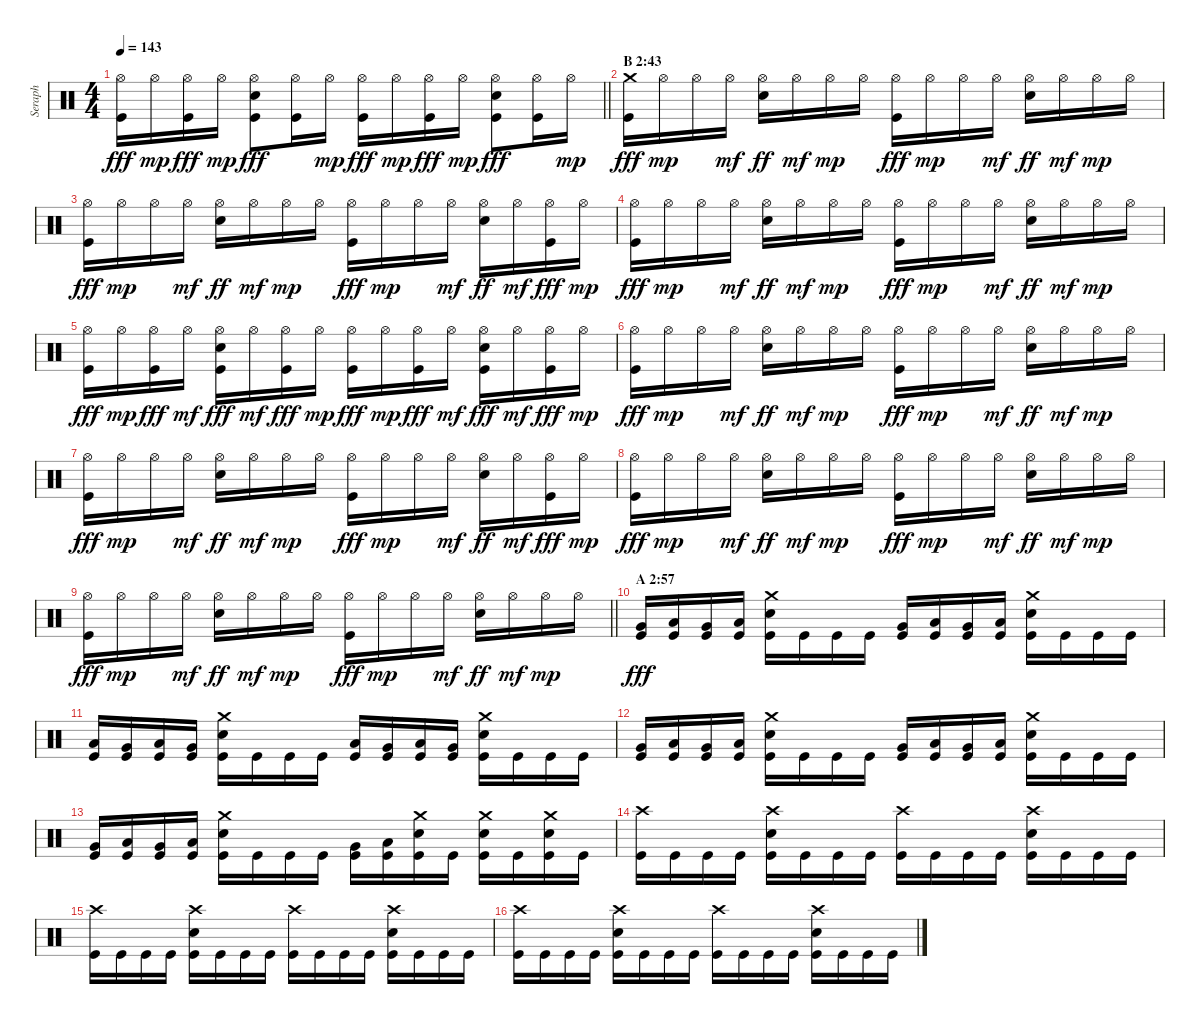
\track ("Seraph" "Seraph") {instrument percussion}
\staff {score}
\articulation defaults
\ts (4 4)
\tempo 143
\clef neutral
\barLineRight lightlight
\ks c
("Hi-Hat (open)" "Kick (hit)").16{dy fff} "Hi-Hat (open)".16{dy mp} ("Hi-Hat (open)" "Kick (hit)").16{dy fff} "Hi-Hat (open)".16{dy mp} ("Hi-Hat (open)" "Electric Snare (hit)" "Kick (hit)").8{dy fff} ("Hi-Hat (open)" "Kick (hit)").16 "Hi-Hat (open)".16{dy mp} ("Hi-Hat (open)" "Kick (hit)").16{dy fff} "Hi-Hat (open)".16{dy mp} ("Hi-Hat (open)" "Kick (hit)").16{dy fff} "Hi-Hat (open)".16{dy mp} ("Hi-Hat (open)" "Electric Snare (hit)" "Kick (hit)").8{dy fff} ("Hi-Hat (open)" "Kick (hit)").16 "Hi-Hat (open)".16{dy mp} |
\section ("" "B 2:43")
("Crash medium (hit)" "Kick (hit)").16{dy fff} "Hi-Hat (open)".16{dy mp} "Hi-Hat (open)".16 "Hi-Hat (open)".16{dy mf} ("Hi-Hat (open)" "Electric Snare (hit)").16{dy ff} "Hi-Hat (open)".16{dy mf} "Hi-Hat (open)".16{dy mp} "Hi-Hat (open)".16 ("Hi-Hat (open)" "Kick (hit)").16{dy fff} "Hi-Hat (open)".16{dy mp} "Hi-Hat (open)".16 "Hi-Hat (open)".16{dy mf} ("Hi-Hat (open)" "Electric Snare (hit)").16{dy ff} "Hi-Hat (open)".16{dy mf} "Hi-Hat (open)".16{dy mp} "Hi-Hat (open)".16 |
("Hi-Hat (open)" "Kick (hit)").16{dy fff} "Hi-Hat (open)".16{dy mp} "Hi-Hat (open)".16 "Hi-Hat (open)".16{dy mf} ("Hi-Hat (open)" "Electric Snare (hit)").16{dy ff} "Hi-Hat (open)".16{dy mf} "Hi-Hat (open)".16{dy mp} "Hi-Hat (open)".16 ("Hi-Hat (open)" "Kick (hit)").16{dy fff} "Hi-Hat (open)".16{dy mp} "Hi-Hat (open)".16 "Hi-Hat (open)".16{dy mf} ("Hi-Hat (open)" "Electric Snare (hit)").16{dy ff} "Hi-Hat (open)".16{dy mf} ("Hi-Hat (open)" "Kick (hit)").16{dy fff} "Hi-Hat (open)".16{dy mp} |
("Hi-Hat (open)" "Kick (hit)").16{dy fff} "Hi-Hat (open)".16{dy mp} "Hi-Hat (open)".16 "Hi-Hat (open)".16{dy mf} ("Hi-Hat (open)" "Electric Snare (hit)").16{dy ff} "Hi-Hat (open)".16{dy mf} "Hi-Hat (open)".16{dy mp} "Hi-Hat (open)".16 ("Hi-Hat (open)" "Kick (hit)").16{dy fff} "Hi-Hat (open)".16{dy mp} "Hi-Hat (open)".16 "Hi-Hat (open)".16{dy mf} ("Hi-Hat (open)" "Electric Snare (hit)").16{dy ff} "Hi-Hat (open)".16{dy mf} "Hi-Hat (open)".16{dy mp} "Hi-Hat (open)".16 |
("Hi-Hat (open)" "Kick (hit)").16{dy fff} "Hi-Hat (open)".16{dy mp} ("Hi-Hat (open)" "Kick (hit)").16{dy fff} "Hi-Hat (open)".16{dy mf} ("Hi-Hat (open)" "Electric Snare (hit)" "Kick (hit)").16{dy fff} "Hi-Hat (open)".16{dy mf} ("Hi-Hat (open)" "Kick (hit)").16{dy fff} "Hi-Hat (open)".16{dy mp} ("Hi-Hat (open)" "Kick (hit)").16{dy fff} "Hi-Hat (open)".16{dy mp} ("Hi-Hat (open)" "Kick (hit)").16{dy fff} "Hi-Hat (open)".16{dy mf} ("Hi-Hat (open)" "Electric Snare (hit)" "Kick (hit)").16{dy fff} "Hi-Hat (open)".16{dy mf} ("Hi-Hat (open)" "Kick (hit)").16{dy fff} "Hi-Hat (open)".16{dy mp} |
("Hi-Hat (open)" "Kick (hit)").16{dy fff} "Hi-Hat (open)".16{dy mp} "Hi-Hat (open)".16 "Hi-Hat (open)".16{dy mf} ("Hi-Hat (open)" "Electric Snare (hit)").16{dy ff} "Hi-Hat (open)".16{dy mf} "Hi-Hat (open)".16{dy mp} "Hi-Hat (open)".16 ("Hi-Hat (open)" "Kick (hit)").16{dy fff} "Hi-Hat (open)".16{dy mp} "Hi-Hat (open)".16 "Hi-Hat (open)".16{dy mf} ("Hi-Hat (open)" "Electric Snare (hit)").16{dy ff} "Hi-Hat (open)".16{dy mf} "Hi-Hat (open)".16{dy mp} "Hi-Hat (open)".16 |
("Hi-Hat (open)" "Kick (hit)").16{dy fff} "Hi-Hat (open)".16{dy mp} "Hi-Hat (open)".16 "Hi-Hat (open)".16{dy mf} ("Hi-Hat (open)" "Electric Snare (hit)").16{dy ff} "Hi-Hat (open)".16{dy mf} "Hi-Hat (open)".16{dy mp} "Hi-Hat (open)".16 ("Hi-Hat (open)" "Kick (hit)").16{dy fff} "Hi-Hat (open)".16{dy mp} "Hi-Hat (open)".16 "Hi-Hat (open)".16{dy mf} ("Hi-Hat (open)" "Electric Snare (hit)").16{dy ff} "Hi-Hat (open)".16{dy mf} ("Hi-Hat (open)" "Kick (hit)").16{dy fff} "Hi-Hat (open)".16{dy mp} |
("Hi-Hat (open)" "Kick (hit)").16{dy fff} "Hi-Hat (open)".16{dy mp} "Hi-Hat (open)".16 "Hi-Hat (open)".16{dy mf} ("Hi-Hat (open)" "Electric Snare (hit)").16{dy ff} "Hi-Hat (open)".16{dy mf} "Hi-Hat (open)".16{dy mp} "Hi-Hat (open)".16 ("Hi-Hat (open)" "Kick (hit)").16{dy fff} "Hi-Hat (open)".16{dy mp} "Hi-Hat (open)".16 "Hi-Hat (open)".16{dy mf} ("Hi-Hat (open)" "Electric Snare (hit)").16{dy ff} "Hi-Hat (open)".16{dy mf} "Hi-Hat (open)".16{dy mp} "Hi-Hat (open)".16 |
\barLineRight lightlight
("Hi-Hat (open)" "Kick (hit)").16{dy fff} "Hi-Hat (open)".16{dy mp} "Hi-Hat (open)".16 "Hi-Hat (open)".16{dy mf} ("Hi-Hat (open)" "Electric Snare (hit)").16{dy ff} "Hi-Hat (open)".16{dy mf} "Hi-Hat (open)".16{dy mp} "Hi-Hat (open)".16 ("Hi-Hat (open)" "Kick (hit)").16{dy fff} "Hi-Hat (open)".16{dy mp} "Hi-Hat (open)".16 "Hi-Hat (open)".16{dy mf} ("Hi-Hat (open)" "Electric Snare (hit)").16{dy ff} "Hi-Hat (open)".16{dy mf} "Hi-Hat (open)".16{dy mp} "Hi-Hat (open)".16 |
\section ("" "A 2:57")
("Very Low Tom (hit)" "Kick (hit)").16{dy fff} ("Low Tom (hit)" "Kick (hit)").16 ("Very Low Tom (hit)" "Kick (hit)").16 ("Low Tom (hit)" "Kick (hit)").16 ("Crash medium (hit)" "Electric Snare (hit)" "Kick (hit)").16 "Kick (hit)".16 "Kick (hit)".16 "Kick (hit)".16 ("Very Low Tom (hit)" "Kick (hit)").16 ("Low Tom (hit)" "Kick (hit)").16 ("Very Low Tom (hit)" "Kick (hit)").16 ("Low Tom (hit)" "Kick (hit)").16 ("Crash medium (hit)" "Electric Snare (hit)" "Kick (hit)").16 "Kick (hit)".16 "Kick (hit)".16 "Kick (hit)".16 |
("Low Tom (hit)" "Kick (hit)").16 ("Very Low Tom (hit)" "Kick (hit)").16 ("Low Tom (hit)" "Kick (hit)").16 ("Very Low Tom (hit)" "Kick (hit)").16 ("Crash medium (hit)" "Electric Snare (hit)" "Kick (hit)").16 "Kick (hit)".16 "Kick (hit)".16 "Kick (hit)".16 ("Low Tom (hit)" "Kick (hit)").16 ("Very Low Tom (hit)" "Kick (hit)").16 ("Low Tom (hit)" "Kick (hit)").16 ("Very Low Tom (hit)" "Kick (hit)").16 ("Crash medium (hit)" "Electric Snare (hit)" "Kick (hit)").16 "Kick (hit)".16 "Kick (hit)".16 "Kick (hit)".16 |
("Very Low Tom (hit)" "Kick (hit)").16 ("Low Tom (hit)" "Kick (hit)").16 ("Very Low Tom (hit)" "Kick (hit)").16 ("Low Tom (hit)" "Kick (hit)").16 ("Crash medium (hit)" "Electric Snare (hit)" "Kick (hit)").16 "Kick (hit)".16 "Kick (hit)".16 "Kick (hit)".16 ("Very Low Tom (hit)" "Kick (hit)").16 ("Low Tom (hit)" "Kick (hit)").16 ("Very Low Tom (hit)" "Kick (hit)").16 ("Low Tom (hit)" "Kick (hit)").16 ("Crash medium (hit)" "Electric Snare (hit)" "Kick (hit)").16 "Kick (hit)".16 "Kick (hit)".16 "Kick (hit)".16 |
("Very Low Tom (hit)" "Kick (hit)").16 ("Low Tom (hit)" "Kick (hit)").16 ("Very Low Tom (hit)" "Kick (hit)").16 ("Low Tom (hit)" "Kick (hit)").16 ("Crash medium (hit)" "Electric Snare (hit)" "Kick (hit)").16 "Kick (hit)".16 "Kick (hit)".16 "Kick (hit)".16 ("Very Low Tom (hit)" "Kick (hit)").16 ("Low Tom (hit)" "Kick (hit)").16 ("Crash medium (hit)" "Electric Snare (hit)" "Kick (hit)").16 "Kick (hit)".16 ("Crash medium (hit)" "Electric Snare (hit)" "Kick (hit)").16 "Kick (hit)".16 ("Crash medium (hit)" "Electric Snare (hit)" "Kick (hit)").16 "Kick (hit)".16 |
("Crash high (hit)" "Kick (hit)").16 "Kick (hit)".16 "Kick (hit)".16 "Kick (hit)".16 ("Crash high (hit)" "Electric Snare (hit)" "Kick (hit)").16 "Kick (hit)".16 "Kick (hit)".16 "Kick (hit)".16 ("Crash high (hit)" "Kick (hit)").16 "Kick (hit)".16 "Kick (hit)".16 "Kick (hit)".16 ("Crash high (hit)" "Electric Snare (hit)" "Kick (hit)").16 "Kick (hit)".16 "Kick (hit)".16 "Kick (hit)".16 |
("Crash high (hit)" "Kick (hit)").16 "Kick (hit)".16 "Kick (hit)".16 "Kick (hit)".16 ("Crash high (hit)" "Electric Snare (hit)" "Kick (hit)").16 "Kick (hit)".16 "Kick (hit)".16 "Kick (hit)".16 ("Crash high (hit)" "Kick (hit)").16 "Kick (hit)".16 "Kick (hit)".16 "Kick (hit)".16 ("Crash high (hit)" "Electric Snare (hit)" "Kick (hit)").16 "Kick (hit)".16 "Kick (hit)".16 "Kick (hit)".16 |
("Crash high (hit)" "Kick (hit)").16 "Kick (hit)".16 "Kick (hit)".16 "Kick (hit)".16 ("Crash high (hit)" "Electric Snare (hit)" "Kick (hit)").16 "Kick (hit)".16 "Kick (hit)".16 "Kick (hit)".16 ("Crash high (hit)" "Kick (hit)").16 "Kick (hit)".16 "Kick (hit)".16 "Kick (hit)".16 ("Crash high (hit)" "Electric Snare (hit)" "Kick (hit)").16 "Kick (hit)".16 "Kick (hit)".16 "Kick (hit)".16
